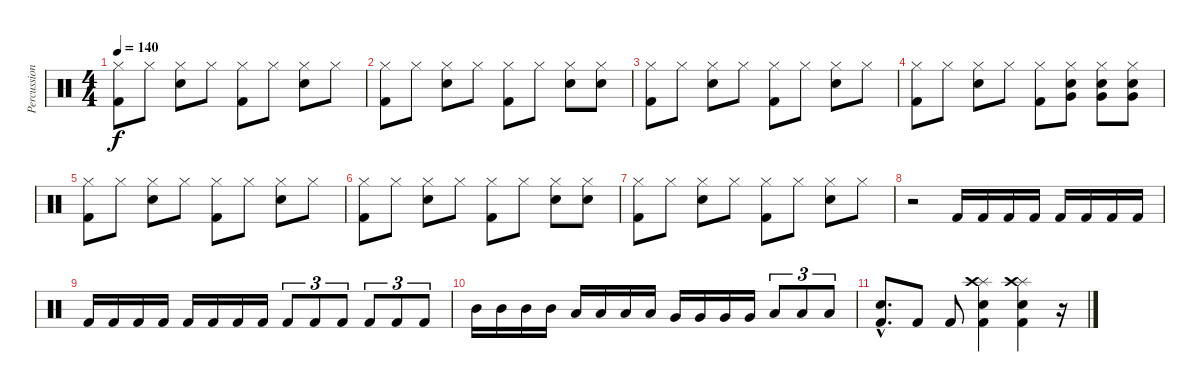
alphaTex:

\track ("Percussion" "Percussion") {instrument percussion}
\staff {score}
\articulation defaults
\ts (4 4)
\tempo 140
\clef neutral
\ks c
("Hi-Hat (closed)" "Kick (hit) 2").8{dy f} "Hi-Hat (closed)".8 ("Hi-Hat (closed)" "Snare (hit) 2").8 "Hi-Hat (closed)".8 ("Hi-Hat (closed)" "Kick (hit) 2").8 "Hi-Hat (closed)".8 ("Hi-Hat (closed)" "Snare (hit) 2").8 "Hi-Hat (closed)".8 |
("Hi-Hat (closed)" "Kick (hit) 2").8 "Hi-Hat (closed)".8 ("Hi-Hat (closed)" "Snare (hit) 2").8 "Hi-Hat (closed)".8 ("Hi-Hat (closed)" "Kick (hit) 2").8 "Hi-Hat (closed)".8 ("Hi-Hat (closed)" "Snare (hit) 2").8 ("Hi-Hat (closed)" "Snare (hit) 2").8 |
("Hi-Hat (closed)" "Kick (hit) 2").8 "Hi-Hat (closed)".8 ("Hi-Hat (closed)" "Snare (hit) 2").8 "Hi-Hat (closed)".8 ("Hi-Hat (closed)" "Kick (hit) 2").8 "Hi-Hat (closed)".8 ("Hi-Hat (closed)" "Snare (hit) 2").8 "Hi-Hat (closed)".8 |
("Hi-Hat (closed)" "Kick (hit) 2").8 "Hi-Hat (closed)".8 ("Hi-Hat (closed)" "Snare (hit) 2").8 "Hi-Hat (closed)".8 ("Hi-Hat (closed)" "Kick (hit) 2").8 ("Hi-Hat (closed)" "Snare (hit) 2" "Very Low Tom (hit)").8 ("Hi-Hat (closed)" "Snare (hit) 2" "Very Low Tom (hit)").8 ("Hi-Hat (closed)" "Snare (hit) 2" "Very Low Tom (hit)").8 |
("Hi-Hat (closed)" "Kick (hit) 2").8 "Hi-Hat (closed)".8 ("Hi-Hat (closed)" "Snare (hit) 2").8 "Hi-Hat (closed)".8 ("Hi-Hat (closed)" "Kick (hit) 2").8 "Hi-Hat (closed)".8 ("Hi-Hat (closed)" "Snare (hit) 2").8 "Hi-Hat (closed)".8 |
("Hi-Hat (closed)" "Kick (hit) 2").8 "Hi-Hat (closed)".8 ("Hi-Hat (closed)" "Snare (hit) 2").8 "Hi-Hat (closed)".8 ("Hi-Hat (closed)" "Kick (hit) 2").8 "Hi-Hat (closed)".8 ("Hi-Hat (closed)" "Snare (hit) 2").8 ("Hi-Hat (closed)" "Snare (hit) 2").8 |
("Hi-Hat (closed)" "Kick (hit) 2").8 "Hi-Hat (closed)".8 ("Hi-Hat (closed)" "Snare (hit) 2").8 "Hi-Hat (closed)".8 ("Hi-Hat (closed)" "Kick (hit) 2").8 "Hi-Hat (closed)".8 ("Hi-Hat (closed)" "Snare (hit) 2").8 "Hi-Hat (closed)".8 |
r.2 "Kick (hit) 2".16 "Kick (hit) 2".16 "Kick (hit) 2".16 "Kick (hit) 2".16 "Kick (hit) 2".16 "Kick (hit) 2".16 "Kick (hit) 2".16 "Kick (hit) 2".16 |
"Kick (hit) 2".16 "Kick (hit) 2".16 "Kick (hit) 2".16 "Kick (hit) 2".16 "Kick (hit) 2".16 "Kick (hit) 2".16 "Kick (hit) 2".16 "Kick (hit) 2".16 "Kick (hit) 2".8{tu (3 2)} "Kick (hit) 2".8{tu (3 2)} "Kick (hit) 2".8{tu (3 2)} "Kick (hit) 2".8{tu (3 2)} "Kick (hit) 2".8{tu (3 2)} "Kick (hit) 2".8{tu (3 2)} |
"Mid Tom (hit)".16 "Mid Tom (hit)".16 "Mid Tom (hit)".16 "Mid Tom (hit)".16 "Low Tom (hit)".16 "Low Tom (hit)".16 "Low Tom (hit)".16 "Low Tom (hit)".16 "Very Low Tom (hit)".16 "Very Low Tom (hit)".16 "Very Low Tom (hit)".16 "Very Low Tom (hit)".16 "Low Floor Tom (hit)".8{tu (3 2)} "Low Floor Tom (hit)".8{tu (3 2)} "Low Floor Tom (hit)".8{tu (3 2)} |
("Snare (hit) 2"{hac} "Kick (hit) 2"{hac}).8{d} "Kick (hit) 2".8 "Kick (hit) 2".8 ("Splash (hit)" "Crash high (hit)" "Snare (hit) 2" "Kick (hit) 2").4 ("Splash (hit)" "Crash high (hit)" "Snare (hit) 2" "Kick (hit) 2").4 r.16
